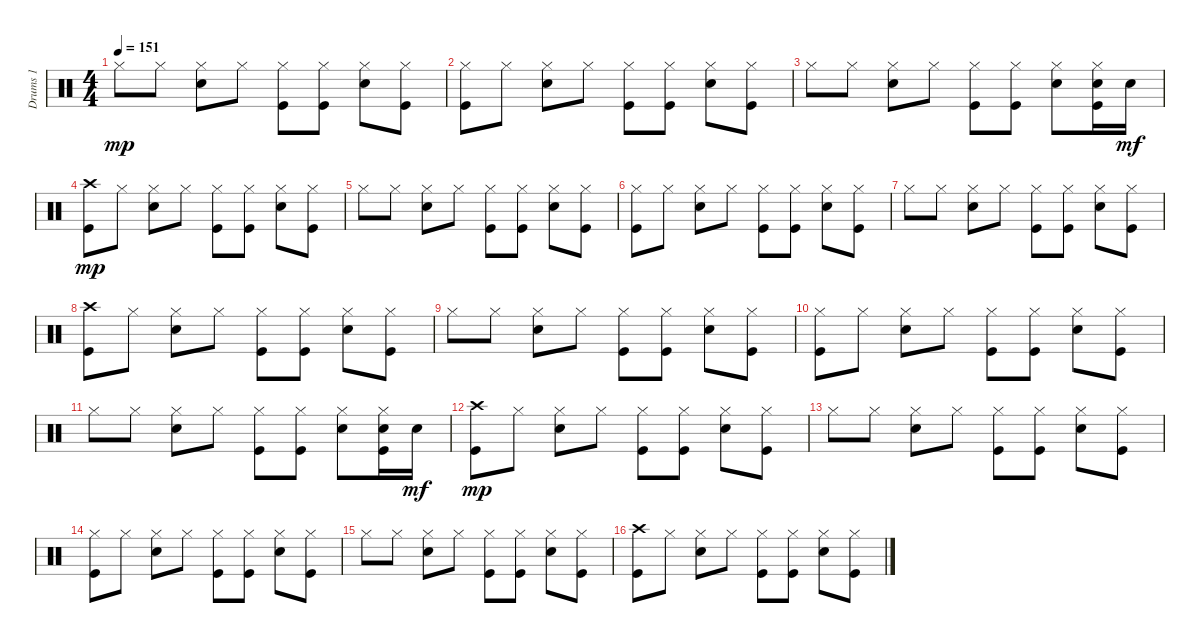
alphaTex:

\track ("Drums 1" "Drums 1") {instrument percussion}
\staff {score}
\articulation defaults
\ts (4 4)
\tempo 151
\clef neutral
\ks c "Hi-Hat (closed)".8{dy mp} "Hi-Hat (closed)".8
("Hi-Hat (closed)" "Snare (hit) 2").8 "Hi-Hat (closed)".8 ("Kick (hit)" "Hi-Hat (closed)").8 ("Kick (hit)" "Hi-Hat (closed)").8 ("Snare (hit) 2" "Hi-Hat (closed)").8 ("Hi-Hat (closed)" "Kick (hit)").8 |
("Hi-Hat (closed)" "Kick (hit)").8 "Hi-Hat (closed)".8 ("Hi-Hat (closed)" "Snare (hit) 2").8 "Hi-Hat (closed)".8 ("Hi-Hat (closed)" "Kick (hit)").8 ("Kick (hit)" "Hi-Hat (closed)").8 ("Hi-Hat (closed)" "Snare (hit) 2").8 ("Hi-Hat (closed)" "Kick (hit)").8 |
"Hi-Hat (closed)".8 "Hi-Hat (closed)".8 ("Hi-Hat (closed)" "Snare (hit) 2").8 "Hi-Hat (closed)".8 ("Kick (hit)" "Hi-Hat (closed)").8 ("Kick (hit)" "Hi-Hat (closed)").8 ("Snare (hit) 2" "Hi-Hat (closed)").8 ("Snare (hit) 2" "Hi-Hat (closed)" "Kick (hit)").16 "Snare (hit) 2".16{dy mf} |
("Crash high (hit)" "Kick (hit)").8{dy mp} "Hi-Hat (closed)".8 ("Hi-Hat (closed)" "Snare (hit) 2").8 "Hi-Hat (closed)".8 ("Hi-Hat (closed)" "Kick (hit)").8 ("Kick (hit)" "Hi-Hat (closed)").8 ("Hi-Hat (closed)" "Snare (hit) 2").8 ("Hi-Hat (closed)" "Kick (hit)").8 |
"Hi-Hat (closed)".8 "Hi-Hat (closed)".8 ("Hi-Hat (closed)" "Snare (hit) 2").8 "Hi-Hat (closed)".8 ("Kick (hit)" "Hi-Hat (closed)").8 ("Kick (hit)" "Hi-Hat (closed)").8 ("Snare (hit) 2" "Hi-Hat (closed)").8 ("Hi-Hat (closed)" "Kick (hit)").8 |
("Hi-Hat (closed)" "Kick (hit)").8 "Hi-Hat (closed)".8 ("Hi-Hat (closed)" "Snare (hit) 2").8 "Hi-Hat (closed)".8 ("Hi-Hat (closed)" "Kick (hit)").8 ("Kick (hit)" "Hi-Hat (closed)").8 ("Hi-Hat (closed)" "Snare (hit) 2").8 ("Hi-Hat (closed)" "Kick (hit)").8 |
"Hi-Hat (closed)".8 "Hi-Hat (closed)".8 ("Hi-Hat (closed)" "Snare (hit) 2").8 "Hi-Hat (closed)".8 ("Kick (hit)" "Hi-Hat (closed)").8 ("Kick (hit)" "Hi-Hat (closed)").8 ("Snare (hit) 2" "Hi-Hat (closed)").8 ("Hi-Hat (closed)" "Kick (hit)").8 |
("Crash high (hit)" "Kick (hit)").8 "Hi-Hat (closed)".8 ("Hi-Hat (closed)" "Snare (hit) 2").8 "Hi-Hat (closed)".8 ("Hi-Hat (closed)" "Kick (hit)").8 ("Kick (hit)" "Hi-Hat (closed)").8 ("Hi-Hat (closed)" "Snare (hit) 2").8 ("Hi-Hat (closed)" "Kick (hit)").8 |
"Hi-Hat (closed)".8 "Hi-Hat (closed)".8 ("Hi-Hat (closed)" "Snare (hit) 2").8 "Hi-Hat (closed)".8 ("Kick (hit)" "Hi-Hat (closed)").8 ("Kick (hit)" "Hi-Hat (closed)").8 ("Snare (hit) 2" "Hi-Hat (closed)").8 ("Hi-Hat (closed)" "Kick (hit)").8 |
("Hi-Hat (closed)" "Kick (hit)").8 "Hi-Hat (closed)".8 ("Hi-Hat (closed)" "Snare (hit) 2").8 "Hi-Hat (closed)".8 ("Hi-Hat (closed)" "Kick (hit)").8 ("Kick (hit)" "Hi-Hat (closed)").8 ("Hi-Hat (closed)" "Snare (hit) 2").8 ("Hi-Hat (closed)" "Kick (hit)").8 |
"Hi-Hat (closed)".8 "Hi-Hat (closed)".8 ("Hi-Hat (closed)" "Snare (hit) 2").8 "Hi-Hat (closed)".8 ("Kick (hit)" "Hi-Hat (closed)").8 ("Kick (hit)" "Hi-Hat (closed)").8 ("Snare (hit) 2" "Hi-Hat (closed)").8 ("Snare (hit) 2" "Hi-Hat (closed)" "Kick (hit)").16 "Snare (hit) 2".16{dy mf} |
("Crash high (hit)" "Kick (hit)").8{dy mp} "Hi-Hat (closed)".8 ("Hi-Hat (closed)" "Snare (hit) 2").8 "Hi-Hat (closed)".8 ("Hi-Hat (closed)" "Kick (hit)").8 ("Kick (hit)" "Hi-Hat (closed)").8 ("Hi-Hat (closed)" "Snare (hit) 2").8 ("Hi-Hat (closed)" "Kick (hit)").8 |
"Hi-Hat (closed)".8 "Hi-Hat (closed)".8 ("Hi-Hat (closed)" "Snare (hit) 2").8 "Hi-Hat (closed)".8 ("Kick (hit)" "Hi-Hat (closed)").8 ("Kick (hit)" "Hi-Hat (closed)").8 ("Snare (hit) 2" "Hi-Hat (closed)").8 ("Hi-Hat (closed)" "Kick (hit)").8 |
("Hi-Hat (closed)" "Kick (hit)").8 "Hi-Hat (closed)".8 ("Hi-Hat (closed)" "Snare (hit) 2").8 "Hi-Hat (closed)".8 ("Hi-Hat (closed)" "Kick (hit)").8 ("Kick (hit)" "Hi-Hat (closed)").8 ("Hi-Hat (closed)" "Snare (hit) 2").8 ("Hi-Hat (closed)" "Kick (hit)").8 |
"Hi-Hat (closed)".8 "Hi-Hat (closed)".8 ("Hi-Hat (closed)" "Snare (hit) 2").8 "Hi-Hat (closed)".8 ("Kick (hit)" "Hi-Hat (closed)").8 ("Kick (hit)" "Hi-Hat (closed)").8 ("Snare (hit) 2" "Hi-Hat (closed)").8 ("Hi-Hat (closed)" "Kick (hit)").8 |
("Crash high (hit)" "Kick (hit)").8 "Hi-Hat (closed)".8 ("Hi-Hat (closed)" "Snare (hit) 2").8 "Hi-Hat (closed)".8 ("Hi-Hat (closed)" "Kick (hit)").8 ("Kick (hit)" "Hi-Hat (closed)").8 ("Hi-Hat (closed)" "Snare (hit) 2").8 ("Hi-Hat (closed)" "Kick (hit)").8
